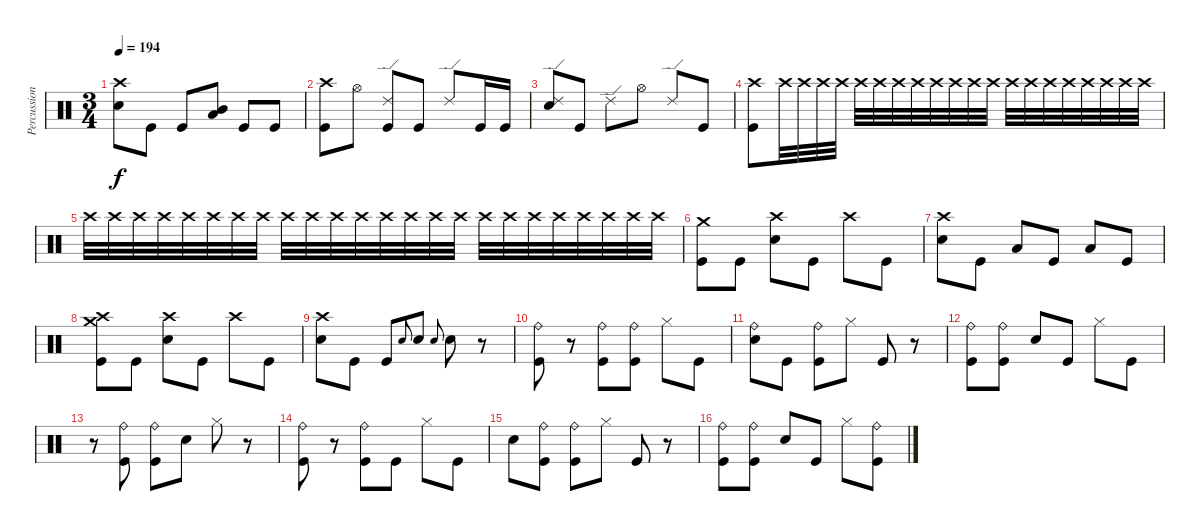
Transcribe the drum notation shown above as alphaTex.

\track ("Percussion" "Percussion") {instrument percussion}
\staff {score}
\articulation defaults
\ts (3 4)
\tempo 194
\clef neutral
\ks c
("Snare (hit) 2" "Crash high (hit)").8{dy f} "Kick (hit)".8 "Kick (hit)".8 ("Low Tom (hit)" "Mid Tom (hit)").8 "Kick (hit)".8 "Kick (hit)".8 |
("Crash high (hit)" "Kick (hit)").8 "Hi-Hat (open)".8 ("Ride (edge) 2" "Kick (hit)").8 "Kick (hit)".8 "Ride (edge) 2".8 "Kick (hit)".16 "Kick (hit)".16 |
("Ride (edge) 2" "Snare (hit) 2").8 "Kick (hit)".8 "Ride (edge) 2".8 "Hi-Hat (open)".8 "Ride (edge) 2".8 "Kick (hit)".8 |
("Crash high (hit)" "Kick (hit)").8 "Crash high (hit)".32{volume 6} "Crash high (hit)".32{volume 13} "Crash high (hit)".32 "Crash high (hit)".32 "Crash high (hit)".32 "Crash high (hit)".32 "Crash high (hit)".32 "Crash high (hit)".32 "Crash high (hit)".32 "Crash high (hit)".32 "Crash high (hit)".32 "Crash high (hit)".32 "Crash high (hit)".32 "Crash high (hit)".32 "Crash high (hit)".32 "Crash high (hit)".32 "Crash high (hit)".32 "Crash high (hit)".32 "Crash high (hit)".32 "Crash high (hit)".32 |
"Crash high (hit)".32 "Crash high (hit)".32 "Crash high (hit)".32 "Crash high (hit)".32 "Crash high (hit)".32 "Crash high (hit)".32 "Crash high (hit)".32 "Crash high (hit)".32 "Crash high (hit)".32 "Crash high (hit)".32 "Crash high (hit)".32 "Crash high (hit)".32 "Crash high (hit)".32 "Crash high (hit)".32 "Crash high (hit)".32 "Crash high (hit)".32 "Crash high (hit)".32 "Crash high (hit)".32 "Crash high (hit)".32 "Crash high (hit)".32 "Crash high (hit)".32 "Crash high (hit)".32 "Crash high (hit)".32 "Crash high (hit)".32 |
("Kick (hit)" "Crash medium (hit)").8 "Kick (hit)".8 ("Snare (hit) 2" "Crash high (hit)").8 "Kick (hit)".8 "Crash high (hit)".8 "Kick (hit)".8 |
("Snare (hit) 2" "Crash high (hit)").8 "Kick (hit)".8 "Low Tom (hit)".8 "Kick (hit)".8 "Low Tom (hit)".8 "Kick (hit)".8 |
("Kick (hit)" "Crash high (hit)" "Crash medium (hit)").8 "Kick (hit)".8 ("Snare (hit) 2" "Crash high (hit)").8 "Kick (hit)".8 "Crash high (hit)".8 "Kick (hit)".8 |
("Snare (hit) 2" "Crash high (hit)").8 "Kick (hit)".8 "Kick (hit)".8 "Snare (hit) 2".8{gr onbeat} "Snare (hit) 2".8 "Snare (hit) 2".8{gr onbeat} "Snare (hit) 2".8 r.8 |
("Ride (bell)" "Kick (hit)").8 r.8 ("Ride (bell)" "Kick (hit)").8 ("Ride (bell)" "Kick (hit)").8 "Hi-Hat (closed)".8 "Kick (hit)".8 |
("Snare (hit) 2" "Ride (bell)").8 "Kick (hit)".8 ("Ride (bell)" "Kick (hit)").8 "Hi-Hat (closed)".8 "Kick (hit)".8 r.8 |
("Ride (bell)" "Kick (hit)").8 ("Ride (bell)" "Kick (hit)").8 "Snare (hit) 2".8 "Kick (hit)".8 "Hi-Hat (closed)".8 "Kick (hit)".8 |
r.8 ("Ride (bell)" "Kick (hit)").8 ("Ride (bell)" "Kick (hit)").8 "Snare (hit) 2".8 "Hi-Hat (closed)".8 r.8 |
("Ride (bell)" "Kick (hit)").8 r.8 ("Ride (bell)" "Kick (hit)").8 "Kick (hit)".8 "Hi-Hat (closed)".8 "Kick (hit)".8 |
"Snare (hit) 2".8 ("Ride (bell)" "Kick (hit)").8 ("Ride (bell)" "Kick (hit)").8 "Hi-Hat (closed)".8 "Kick (hit)".8 r.8 |
("Ride (bell)" "Kick (hit)").8 ("Ride (bell)" "Kick (hit)").8 "Snare (hit) 2".8 "Kick (hit)".8 "Hi-Hat (closed)".8 ("Ride (bell)" "Kick (hit)").8
